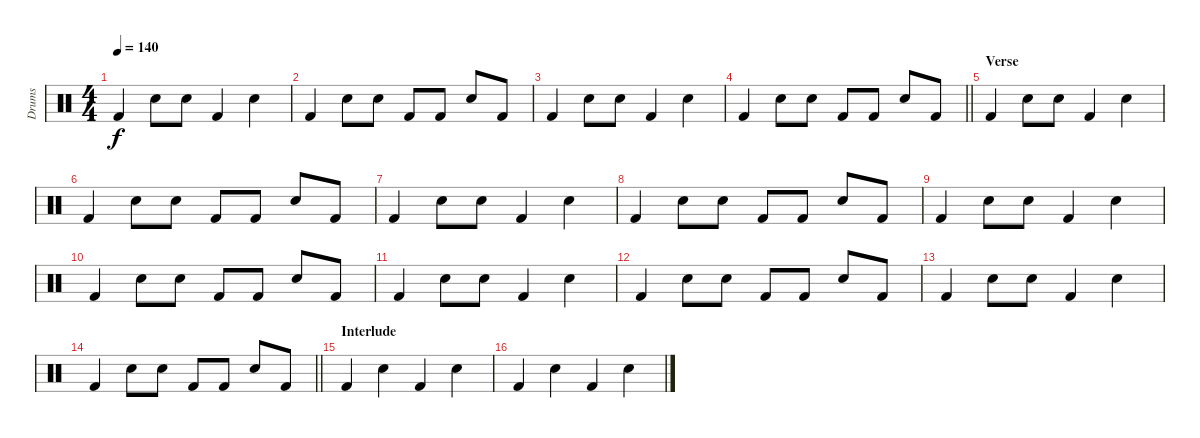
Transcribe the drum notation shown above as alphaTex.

\track ("Drums" "Drums") {instrument percussion}
\staff {score}
\articulation defaults
\ts (4 4)
\tempo 140
\clef neutral
\ks c "Kick (hit) 2".4{dy f} "Snare (hit) 2".8 "Snare (hit) 2".8 "Kick (hit) 2".4 "Snare (hit) 2".4
|
"Kick (hit) 2".4 "Snare (hit) 2".8 "Snare (hit) 2".8 "Kick (hit) 2".8 "Kick (hit) 2".8 "Snare (hit) 2".8 "Kick (hit) 2".8 |
"Kick (hit) 2".4 "Snare (hit) 2".8 "Snare (hit) 2".8 "Kick (hit) 2".4 "Snare (hit) 2".4 |
\barLineRight lightlight "Kick (hit) 2".4 "Snare (hit) 2".8 "Snare (hit) 2".8 "Kick (hit) 2".8 "Kick (hit) 2".8 "Snare (hit) 2".8 "Kick (hit) 2".8
|
\section ("" "Verse")
"Kick (hit) 2".4 "Snare (hit) 2".8 "Snare (hit) 2".8 "Kick (hit) 2".4 "Snare (hit) 2".4 |
"Kick (hit) 2".4 "Snare (hit) 2".8 "Snare (hit) 2".8 "Kick (hit) 2".8 "Kick (hit) 2".8 "Snare (hit) 2".8 "Kick (hit) 2".8 |
"Kick (hit) 2".4 "Snare (hit) 2".8 "Snare (hit) 2".8 "Kick (hit) 2".4 "Snare (hit) 2".4 |
"Kick (hit) 2".4 "Snare (hit) 2".8 "Snare (hit) 2".8 "Kick (hit) 2".8 "Kick (hit) 2".8 "Snare (hit) 2".8 "Kick (hit) 2".8 |
"Kick (hit) 2".4 "Snare (hit) 2".8 "Snare (hit) 2".8 "Kick (hit) 2".4 "Snare (hit) 2".4 |
"Kick (hit) 2".4 "Snare (hit) 2".8 "Snare (hit) 2".8 "Kick (hit) 2".8 "Kick (hit) 2".8 "Snare (hit) 2".8 "Kick (hit) 2".8 |
"Kick (hit) 2".4 "Snare (hit) 2".8 "Snare (hit) 2".8 "Kick (hit) 2".4 "Snare (hit) 2".4 |
"Kick (hit) 2".4 "Snare (hit) 2".8 "Snare (hit) 2".8 "Kick (hit) 2".8 "Kick (hit) 2".8 "Snare (hit) 2".8 "Kick (hit) 2".8 |
"Kick (hit) 2".4 "Snare (hit) 2".8 "Snare (hit) 2".8 "Kick (hit) 2".4 "Snare (hit) 2".4 |
\barLineRight lightlight "Kick (hit) 2".4 "Snare (hit) 2".8 "Snare (hit) 2".8 "Kick (hit) 2".8 "Kick (hit) 2".8 "Snare (hit) 2".8 "Kick (hit) 2".8
|
\section ("" "Interlude")
"Kick (hit) 2".4 "Snare (hit) 2".4 "Kick (hit) 2".4 "Snare (hit) 2".4 |
"Kick (hit) 2".4 "Snare (hit) 2".4 "Kick (hit) 2".4 "Snare (hit) 2".4
